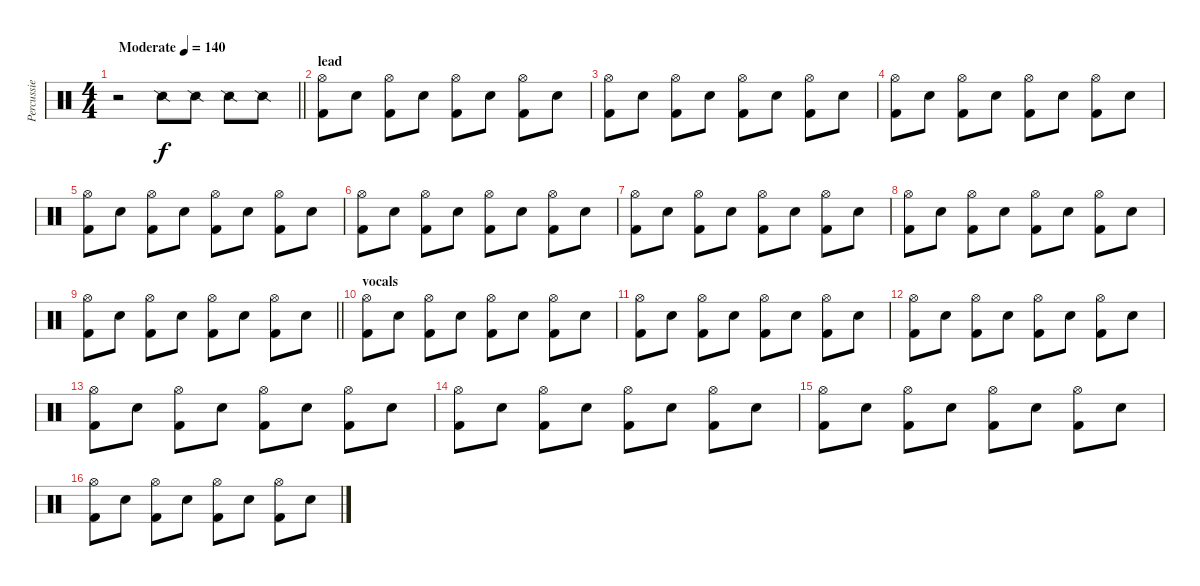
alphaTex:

\track ("Percussie" "Percussie") {instrument percussion}
\staff {score}
\articulation defaults
\ts (4 4)
\tempo (140 "Moderate")
\clef neutral
\barLineRight lightlight
\ks c
r.2{dy f} "Snare (side stick) 2".8 "Snare (side stick) 2".8 "Snare (side stick) 2".8 "Snare (side stick) 2".8 |
\section ("" "lead")
("Hi-Hat (open)" "Kick (hit) 2").8 "Snare (hit) 2".8 ("Hi-Hat (open)" "Kick (hit) 2").8 "Snare (hit) 2".8 ("Hi-Hat (open)" "Kick (hit) 2").8 "Snare (hit) 2".8 ("Hi-Hat (open)" "Kick (hit) 2").8 "Snare (hit) 2".8 |
("Hi-Hat (open)" "Kick (hit) 2").8 "Snare (hit) 2".8 ("Hi-Hat (open)" "Kick (hit) 2").8 "Snare (hit) 2".8 ("Hi-Hat (open)" "Kick (hit) 2").8 "Snare (hit) 2".8 ("Hi-Hat (open)" "Kick (hit) 2").8 "Snare (hit) 2".8 |
("Hi-Hat (open)" "Kick (hit) 2").8 "Snare (hit) 2".8 ("Hi-Hat (open)" "Kick (hit) 2").8 "Snare (hit) 2".8 ("Hi-Hat (open)" "Kick (hit) 2").8 "Snare (hit) 2".8 ("Hi-Hat (open)" "Kick (hit) 2").8 "Snare (hit) 2".8 |
("Hi-Hat (open)" "Kick (hit) 2").8 "Snare (hit) 2".8 ("Hi-Hat (open)" "Kick (hit) 2").8 "Snare (hit) 2".8 ("Hi-Hat (open)" "Kick (hit) 2").8 "Snare (hit) 2".8 ("Hi-Hat (open)" "Kick (hit) 2").8 "Snare (hit) 2".8 |
("Hi-Hat (open)" "Kick (hit) 2").8 "Snare (hit) 2".8 ("Hi-Hat (open)" "Kick (hit) 2").8 "Snare (hit) 2".8 ("Hi-Hat (open)" "Kick (hit) 2").8 "Snare (hit) 2".8 ("Hi-Hat (open)" "Kick (hit) 2").8 "Snare (hit) 2".8 |
("Hi-Hat (open)" "Kick (hit) 2").8 "Snare (hit) 2".8 ("Hi-Hat (open)" "Kick (hit) 2").8 "Snare (hit) 2".8 ("Hi-Hat (open)" "Kick (hit) 2").8 "Snare (hit) 2".8 ("Hi-Hat (open)" "Kick (hit) 2").8 "Snare (hit) 2".8 |
("Hi-Hat (open)" "Kick (hit) 2").8 "Snare (hit) 2".8 ("Hi-Hat (open)" "Kick (hit) 2").8 "Snare (hit) 2".8 ("Hi-Hat (open)" "Kick (hit) 2").8 "Snare (hit) 2".8 ("Hi-Hat (open)" "Kick (hit) 2").8 "Snare (hit) 2".8 |
\barLineRight lightlight
("Hi-Hat (open)" "Kick (hit) 2").8 "Snare (hit) 2".8 ("Hi-Hat (open)" "Kick (hit) 2").8 "Snare (hit) 2".8 ("Hi-Hat (open)" "Kick (hit) 2").8 "Snare (hit) 2".8 ("Hi-Hat (open)" "Kick (hit) 2").8 "Snare (hit) 2".8 |
\section ("" "vocals")
("Hi-Hat (open)" "Kick (hit) 2").8 "Snare (hit) 2".8 ("Hi-Hat (open)" "Kick (hit) 2").8 "Snare (hit) 2".8 ("Hi-Hat (open)" "Kick (hit) 2").8 "Snare (hit) 2".8 ("Hi-Hat (open)" "Kick (hit) 2").8 "Snare (hit) 2".8 |
("Hi-Hat (open)" "Kick (hit) 2").8 "Snare (hit) 2".8 ("Hi-Hat (open)" "Kick (hit) 2").8 "Snare (hit) 2".8 ("Hi-Hat (open)" "Kick (hit) 2").8 "Snare (hit) 2".8 ("Hi-Hat (open)" "Kick (hit) 2").8 "Snare (hit) 2".8 |
("Hi-Hat (open)" "Kick (hit) 2").8 "Snare (hit) 2".8 ("Hi-Hat (open)" "Kick (hit) 2").8 "Snare (hit) 2".8 ("Hi-Hat (open)" "Kick (hit) 2").8 "Snare (hit) 2".8 ("Hi-Hat (open)" "Kick (hit) 2").8 "Snare (hit) 2".8 |
("Hi-Hat (open)" "Kick (hit) 2").8 "Snare (hit) 2".8 ("Hi-Hat (open)" "Kick (hit) 2").8 "Snare (hit) 2".8 ("Hi-Hat (open)" "Kick (hit) 2").8 "Snare (hit) 2".8 ("Hi-Hat (open)" "Kick (hit) 2").8 "Snare (hit) 2".8 |
("Hi-Hat (open)" "Kick (hit) 2").8 "Snare (hit) 2".8 ("Hi-Hat (open)" "Kick (hit) 2").8 "Snare (hit) 2".8 ("Hi-Hat (open)" "Kick (hit) 2").8 "Snare (hit) 2".8 ("Hi-Hat (open)" "Kick (hit) 2").8 "Snare (hit) 2".8 |
("Hi-Hat (open)" "Kick (hit) 2").8 "Snare (hit) 2".8 ("Hi-Hat (open)" "Kick (hit) 2").8 "Snare (hit) 2".8 ("Hi-Hat (open)" "Kick (hit) 2").8 "Snare (hit) 2".8 ("Hi-Hat (open)" "Kick (hit) 2").8 "Snare (hit) 2".8 |
("Hi-Hat (open)" "Kick (hit) 2").8 "Snare (hit) 2".8 ("Hi-Hat (open)" "Kick (hit) 2").8 "Snare (hit) 2".8 ("Hi-Hat (open)" "Kick (hit) 2").8 "Snare (hit) 2".8 ("Hi-Hat (open)" "Kick (hit) 2").8 "Snare (hit) 2".8
